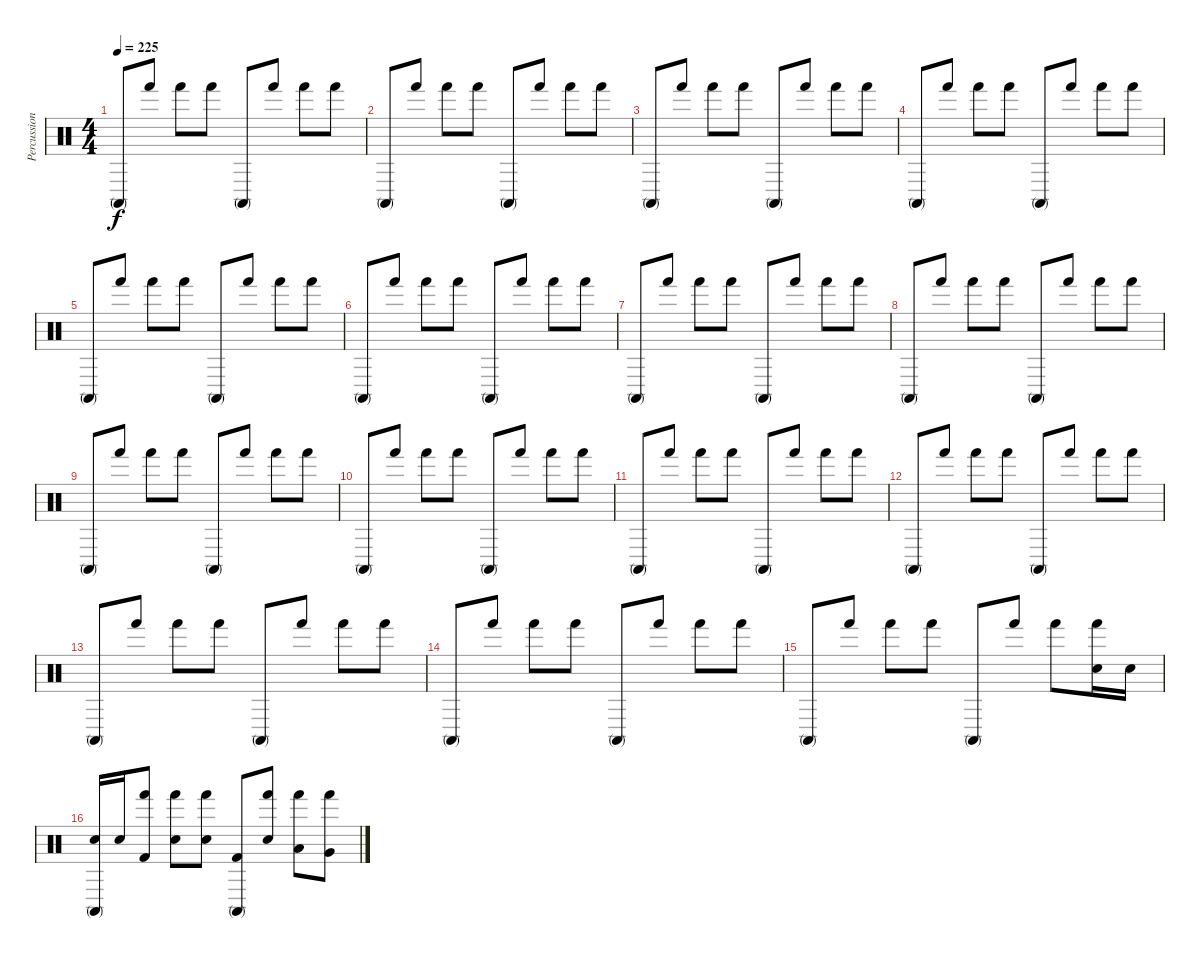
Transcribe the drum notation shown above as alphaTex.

\track ("Percussion" "Percussion") {instrument percussion}
\staff {score}
\articulation defaults
\ts (4 4)
\tempo 225
\clef neutral
\ks c "Conga high (mute)".8{dy f} "Hand (hit)".8 "Hand (hit)".8 "Hand (hit)".8 "Conga high (mute)".8 "Hand (hit)".8 "Hand (hit)".8 "Hand (hit)".8
|
"Conga high (mute)".8 "Hand (hit)".8 "Hand (hit)".8 "Hand (hit)".8 "Conga high (mute)".8 "Hand (hit)".8 "Hand (hit)".8 "Hand (hit)".8 |
"Conga high (mute)".8 "Hand (hit)".8 "Hand (hit)".8 "Hand (hit)".8 "Conga high (mute)".8 "Hand (hit)".8 "Hand (hit)".8 "Hand (hit)".8 |
"Conga high (mute)".8 "Hand (hit)".8 "Hand (hit)".8 "Hand (hit)".8 "Conga high (mute)".8 "Hand (hit)".8 "Hand (hit)".8 "Hand (hit)".8 |
"Conga high (mute)".8 "Hand (hit)".8 "Hand (hit)".8 "Hand (hit)".8 "Conga high (mute)".8 "Hand (hit)".8 "Hand (hit)".8 "Hand (hit)".8 |
"Conga high (mute)".8 "Hand (hit)".8 "Hand (hit)".8 "Hand (hit)".8 "Conga high (mute)".8 "Hand (hit)".8 "Hand (hit)".8 "Hand (hit)".8 |
"Conga high (mute)".8 "Hand (hit)".8 "Hand (hit)".8 "Hand (hit)".8 "Conga high (mute)".8 "Hand (hit)".8 "Hand (hit)".8 "Hand (hit)".8 |
"Conga high (mute)".8 "Hand (hit)".8 "Hand (hit)".8 "Hand (hit)".8 "Conga high (mute)".8 "Hand (hit)".8 "Hand (hit)".8 "Hand (hit)".8 |
"Conga high (mute)".8 "Hand (hit)".8 "Hand (hit)".8 "Hand (hit)".8 "Conga high (mute)".8 "Hand (hit)".8 "Hand (hit)".8 "Hand (hit)".8 |
"Conga high (mute)".8 "Hand (hit)".8 "Hand (hit)".8 "Hand (hit)".8 "Conga high (mute)".8 "Hand (hit)".8 "Hand (hit)".8 "Hand (hit)".8 |
"Conga high (mute)".8 "Hand (hit)".8 "Hand (hit)".8 "Hand (hit)".8 "Conga high (mute)".8 "Hand (hit)".8 "Hand (hit)".8 "Hand (hit)".8 |
"Conga high (mute)".8 "Hand (hit)".8 "Hand (hit)".8 "Hand (hit)".8 "Conga high (mute)".8 "Hand (hit)".8 "Hand (hit)".8 "Hand (hit)".8 |
"Conga high (mute)".8 "Hand (hit)".8 "Hand (hit)".8 "Hand (hit)".8 "Conga high (mute)".8 "Hand (hit)".8 "Hand (hit)".8 "Hand (hit)".8 |
"Conga high (mute)".8 "Hand (hit)".8 "Hand (hit)".8 "Hand (hit)".8 "Conga high (mute)".8 "Hand (hit)".8 "Hand (hit)".8 "Hand (hit)".8 |
"Conga high (mute)".8 "Hand (hit)".8 "Hand (hit)".8 "Hand (hit)".8 "Conga high (mute)".8 "Hand (hit)".8 "Hand (hit)".8 ("Hand (hit)" "Electric Snare (hit)").16 "Electric Snare (hit)".16 |
("Conga high (mute)" "Electric Snare (hit)").16 "Electric Snare (hit)".16 ("Hand (hit)" "Kick (hit) 2").8 ("Hand (hit)" "Electric Snare (hit)").8 ("Hand (hit)" "Electric Snare (hit)").8 ("Conga high (mute)" "Kick (hit) 2").8 ("Hand (hit)" "Electric Snare (hit)").8 ("Low Tom (hit)" "Hand (hit)").8 ("Very Low Tom (hit)" "Hand (hit)").8
